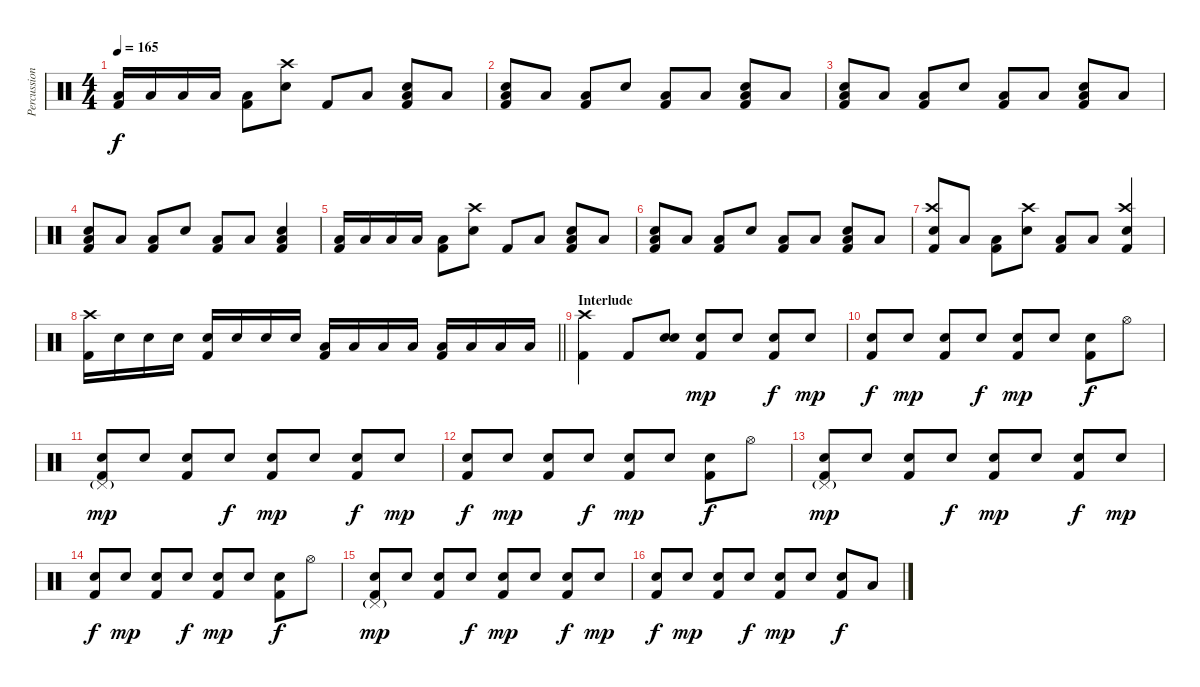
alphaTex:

\track ("Percussion" "Percussion") {instrument percussion}
\staff {score}
\articulation defaults
\ts (4 4)
\tempo 165
\clef neutral
\ks c
("Low Tom (hit)" "Kick (hit) 2").16{dy f} "Low Tom (hit)".16 "Low Tom (hit)".16 "Low Tom (hit)".16 ("Low Tom (hit)" "Kick (hit) 2").8 ("Crash high (hit)" "Electric Snare (hit)").8 "Kick (hit) 2".8 "Low Floor Tom (hit)".8 ("Electric Snare (hit)" "Low Floor Tom (hit)" "Kick (hit) 2").8 "Low Floor Tom (hit)".8 |
("Electric Snare (hit)" "Low Floor Tom (hit)" "Kick (hit) 2").8 "Low Floor Tom (hit)".8 ("Low Floor Tom (hit)" "Kick (hit) 2").8 "Electric Snare (hit)".8 ("Low Floor Tom (hit)" "Kick (hit) 2").8 "Low Floor Tom (hit)".8 ("Electric Snare (hit)" "Low Floor Tom (hit)" "Kick (hit) 2").8 "Low Floor Tom (hit)".8 |
("Electric Snare (hit)" "Low Floor Tom (hit)" "Kick (hit) 2").8 "Low Floor Tom (hit)".8 ("Low Floor Tom (hit)" "Kick (hit) 2").8 "Electric Snare (hit)".8 ("Low Floor Tom (hit)" "Kick (hit) 2").8 "Low Floor Tom (hit)".8 ("Electric Snare (hit)" "Low Floor Tom (hit)" "Kick (hit) 2").8 "Low Floor Tom (hit)".8 |
("Electric Snare (hit)" "Low Floor Tom (hit)" "Kick (hit) 2").8 "Low Floor Tom (hit)".8 ("Low Floor Tom (hit)" "Kick (hit) 2").8 "Electric Snare (hit)".8 ("Low Floor Tom (hit)" "Kick (hit) 2").8 "Low Floor Tom (hit)".8 ("Electric Snare (hit)" "Low Floor Tom (hit)" "Kick (hit) 2").4 |
("Low Tom (hit)" "Kick (hit) 2").16 "Low Tom (hit)".16 "Low Tom (hit)".16 "Low Tom (hit)".16 ("Low Tom (hit)" "Kick (hit) 2").8 ("Crash high (hit)" "Electric Snare (hit)").8 "Kick (hit) 2".8 "Low Floor Tom (hit)".8 ("Electric Snare (hit)" "Low Floor Tom (hit)" "Kick (hit) 2").8 "Low Floor Tom (hit)".8 |
("Electric Snare (hit)" "Low Floor Tom (hit)" "Kick (hit) 2").8 "Low Floor Tom (hit)".8 ("Low Floor Tom (hit)" "Kick (hit) 2").8 "Electric Snare (hit)".8 ("Low Floor Tom (hit)" "Kick (hit) 2").8 "Low Floor Tom (hit)".8 ("Electric Snare (hit)" "Low Floor Tom (hit)" "Kick (hit) 2").8 "Low Floor Tom (hit)".8 |
("Crash high (hit)" "Electric Snare (hit)" "Kick (hit) 2").8 "Low Floor Tom (hit)".8 ("Low Floor Tom (hit)" "Kick (hit) 2").8 ("Crash high (hit)" "Electric Snare (hit)").8 ("Low Floor Tom (hit)" "Kick (hit) 2").8 "Low Floor Tom (hit)".8 ("Crash high (hit)" "Electric Snare (hit)" "Kick (hit) 2").4 |
\barLineRight lightlight
("Crash high (hit)" "Kick (hit) 2").16 "Electric Snare (hit)".16 "Electric Snare (hit)".16 "Electric Snare (hit)".16 ("Electric Snare (hit)" "Kick (hit) 2").16 "Electric Snare (hit)".16 "Electric Snare (hit)".16 "Electric Snare (hit)".16 ("Low Tom (hit)" "Kick (hit) 2").16 "Low Tom (hit)".16 "Low Tom (hit)".16 "Low Tom (hit)".16 ("Low Floor Tom (hit)" "Kick (hit) 2").16 "Low Floor Tom (hit)".16 "Low Floor Tom (hit)".16 "Low Floor Tom (hit)".16 |
\section ("" "Interlude")
("Crash high (hit)" "Kick (hit) 2").4 "Kick (hit) 2".8 ("Electric Snare (hit)" "Electric Snare (hit)").8 ("Electric Snare (hit)" "Kick (hit) 2").8{dy mp} "Electric Snare (hit)".8 ("Electric Snare (hit)" "Kick (hit) 2").8{dy f} "Electric Snare (hit)".8{dy mp} |
("Electric Snare (hit)" "Kick (hit) 2").8{dy f} "Electric Snare (hit)".8{dy mp} ("Electric Snare (hit)" "Kick (hit) 2").8 "Electric Snare (hit)".8{dy f} ("Electric Snare (hit)" "Kick (hit) 2").8{dy mp} "Electric Snare (hit)".8 ("Electric Snare (hit)" "Kick (hit) 2").8{dy f} "Hi-Hat (open)".8 |
("Pedal Hi-Hat (hit)"{g} "Electric Snare (hit)" "Kick (hit) 2").8{dy mp} "Electric Snare (hit)".8 ("Electric Snare (hit)" "Kick (hit) 2").8 "Electric Snare (hit)".8{dy f} ("Electric Snare (hit)" "Kick (hit) 2").8{dy mp} "Electric Snare (hit)".8 ("Electric Snare (hit)" "Kick (hit) 2").8{dy f} "Electric Snare (hit)".8{dy mp} |
("Electric Snare (hit)" "Kick (hit) 2").8{dy f} "Electric Snare (hit)".8{dy mp} ("Electric Snare (hit)" "Kick (hit) 2").8 "Electric Snare (hit)".8{dy f} ("Electric Snare (hit)" "Kick (hit) 2").8{dy mp} "Electric Snare (hit)".8 ("Electric Snare (hit)" "Kick (hit) 2").8{dy f} "Hi-Hat (open)".8 |
("Pedal Hi-Hat (hit)"{g} "Electric Snare (hit)" "Kick (hit) 2").8{dy mp} "Electric Snare (hit)".8 ("Electric Snare (hit)" "Kick (hit) 2").8 "Electric Snare (hit)".8{dy f} ("Electric Snare (hit)" "Kick (hit) 2").8{dy mp} "Electric Snare (hit)".8 ("Electric Snare (hit)" "Kick (hit) 2").8{dy f} "Electric Snare (hit)".8{dy mp} |
("Electric Snare (hit)" "Kick (hit) 2").8{dy f} "Electric Snare (hit)".8{dy mp} ("Electric Snare (hit)" "Kick (hit) 2").8 "Electric Snare (hit)".8{dy f} ("Electric Snare (hit)" "Kick (hit) 2").8{dy mp} "Electric Snare (hit)".8 ("Electric Snare (hit)" "Kick (hit) 2").8{dy f} "Hi-Hat (open)".8 |
("Pedal Hi-Hat (hit)"{g} "Electric Snare (hit)" "Kick (hit) 2").8{dy mp} "Electric Snare (hit)".8 ("Electric Snare (hit)" "Kick (hit) 2").8 "Electric Snare (hit)".8{dy f} ("Electric Snare (hit)" "Kick (hit) 2").8{dy mp} "Electric Snare (hit)".8 ("Electric Snare (hit)" "Kick (hit) 2").8{dy f} "Electric Snare (hit)".8{dy mp} |
("Electric Snare (hit)" "Kick (hit) 2").8{dy f} "Electric Snare (hit)".8{dy mp} ("Electric Snare (hit)" "Kick (hit) 2").8 "Electric Snare (hit)".8{dy f} ("Electric Snare (hit)" "Kick (hit) 2").8{dy mp} "Electric Snare (hit)".8 ("Electric Snare (hit)" "Kick (hit) 2").8{dy f} "Low Tom (hit)".8
